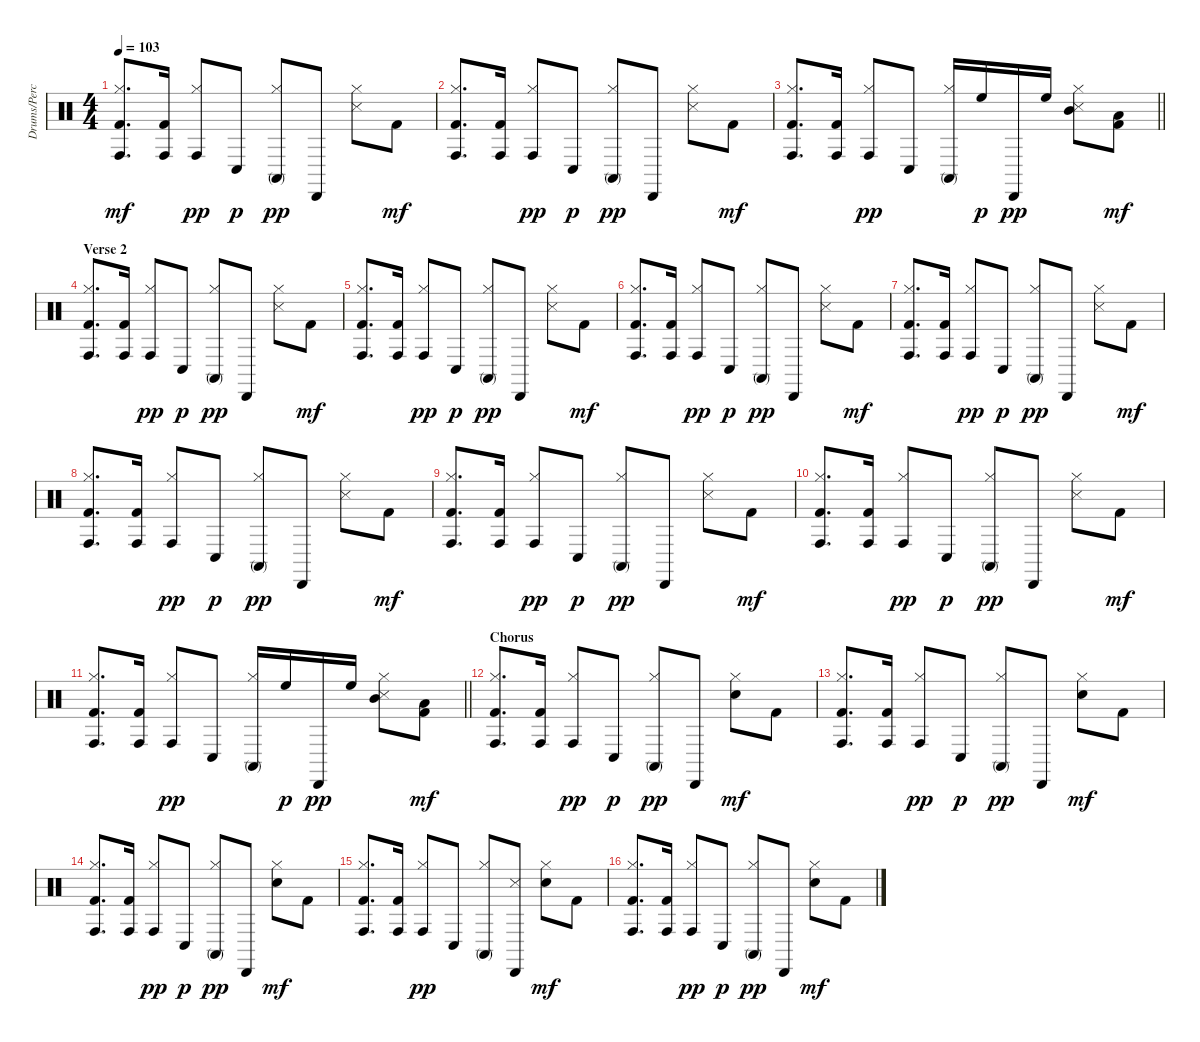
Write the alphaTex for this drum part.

\track ("Drums/Perc." "Drums/Perc") {instrument percussion}
\staff {score}
\articulation defaults
\ts (4 4)
\tempo 103
\clef neutral
\ks c
("Conga high (hit)" "Hi-Hat (closed)" "Kick (hit) 2").8{d dy mf} ("Conga high (hit)" "Kick (hit) 2").16 ("Conga high (hit)" "Hi-Hat (closed)").8{dy pp} "Conga low (hit)".8{dy p} ("Conga high (mute)" "Hi-Hat (closed)").8{dy pp} "Cabasa (hit)".8 ("Hi-Hat (closed)" "Snare (side stick) 3").8 "Kick (hit) 2".8{dy mf} |
("Conga high (hit)" "Hi-Hat (closed)" "Kick (hit) 2").8{d} ("Conga high (hit)" "Kick (hit) 2").16 ("Conga high (hit)" "Hi-Hat (closed)").8{dy pp} "Conga low (hit)".8{dy p} ("Conga high (mute)" "Hi-Hat (closed)").8{dy pp} "Cabasa (hit)".8 ("Hi-Hat (closed)" "Snare (side stick) 3").8 "Kick (hit) 2".8{dy mf} |
\barLineRight lightlight
("Conga high (hit)" "Hi-Hat (closed)" "Kick (hit) 2").8{d} ("Conga high (hit)" "Kick (hit) 2").16 ("Conga high (hit)" "Hi-Hat (closed)").8{dy pp} "Conga low (hit)".8 ("Conga high (mute)" "Hi-Hat (closed)").16 "High Floor Tom (hit)".16{dy p} "Cabasa (hit)".16{dy pp} "High Floor Tom (hit)".16 ("Mid Tom (hit)" "Hi-Hat (closed)" "Snare (side stick) 3").8 ("Low Floor Tom (hit)" "Kick (hit) 2").8{dy mf} |
\section ("" "Verse 2")
("Conga high (hit)" "Hi-Hat (closed)" "Kick (hit) 2").8{d} ("Conga high (hit)" "Kick (hit) 2").16 ("Conga high (hit)" "Hi-Hat (closed)").8{dy pp} "Conga low (hit)".8{dy p} ("Conga high (mute)" "Hi-Hat (closed)").8{dy pp} "Cabasa (hit)".8 ("Hi-Hat (closed)" "Snare (side stick) 3").8 "Kick (hit) 2".8{dy mf} |
("Conga high (hit)" "Hi-Hat (closed)" "Kick (hit) 2").8{d} ("Conga high (hit)" "Kick (hit) 2").16 ("Conga high (hit)" "Hi-Hat (closed)").8{dy pp} "Conga low (hit)".8{dy p} ("Conga high (mute)" "Hi-Hat (closed)").8{dy pp} "Cabasa (hit)".8 ("Hi-Hat (closed)" "Snare (side stick) 3").8 "Kick (hit) 2".8{dy mf} |
("Conga high (hit)" "Hi-Hat (closed)" "Kick (hit) 2").8{d} ("Conga high (hit)" "Kick (hit) 2").16 ("Conga high (hit)" "Hi-Hat (closed)").8{dy pp} "Conga low (hit)".8{dy p} ("Conga high (mute)" "Hi-Hat (closed)").8{dy pp} "Cabasa (hit)".8 ("Hi-Hat (closed)" "Snare (side stick) 3").8 "Kick (hit) 2".8{dy mf} |
("Conga high (hit)" "Hi-Hat (closed)" "Kick (hit) 2").8{d} ("Conga high (hit)" "Kick (hit) 2").16 ("Conga high (hit)" "Hi-Hat (closed)").8{dy pp} "Conga low (hit)".8{dy p} ("Conga high (mute)" "Hi-Hat (closed)").8{dy pp} "Cabasa (hit)".8 ("Hi-Hat (closed)" "Snare (side stick) 3").8 "Kick (hit) 2".8{dy mf} |
("Conga high (hit)" "Hi-Hat (closed)" "Kick (hit) 2").8{d} ("Conga high (hit)" "Kick (hit) 2").16 ("Conga high (hit)" "Hi-Hat (closed)").8{dy pp} "Conga low (hit)".8{dy p} ("Conga high (mute)" "Hi-Hat (closed)").8{dy pp} "Cabasa (hit)".8 ("Hi-Hat (closed)" "Snare (side stick) 3").8 "Kick (hit) 2".8{dy mf} |
("Conga high (hit)" "Hi-Hat (closed)" "Kick (hit) 2").8{d} ("Conga high (hit)" "Kick (hit) 2").16 ("Conga high (hit)" "Hi-Hat (closed)").8{dy pp} "Conga low (hit)".8{dy p} ("Conga high (mute)" "Hi-Hat (closed)").8{dy pp} "Cabasa (hit)".8 ("Hi-Hat (closed)" "Snare (side stick) 3").8 "Kick (hit) 2".8{dy mf} |
("Conga high (hit)" "Hi-Hat (closed)" "Kick (hit) 2").8{d} ("Conga high (hit)" "Kick (hit) 2").16 ("Conga high (hit)" "Hi-Hat (closed)").8{dy pp} "Conga low (hit)".8{dy p} ("Conga high (mute)" "Hi-Hat (closed)").8{dy pp} "Cabasa (hit)".8 ("Hi-Hat (closed)" "Snare (side stick) 3").8 "Kick (hit) 2".8{dy mf} |
\barLineRight lightlight
("Conga high (hit)" "Hi-Hat (closed)" "Kick (hit) 2").8{d} ("Conga high (hit)" "Kick (hit) 2").16 ("Conga high (hit)" "Hi-Hat (closed)").8{dy pp} "Conga low (hit)".8 ("Conga high (mute)" "Hi-Hat (closed)").16 "High Floor Tom (hit)".16{dy p} "Cabasa (hit)".16{dy pp} "High Floor Tom (hit)".16 ("Mid Tom (hit)" "Hi-Hat (closed)" "Snare (side stick) 3").8 ("Low Floor Tom (hit)" "Kick (hit) 2").8{dy mf} |
\section ("" "Chorus")
("Conga high (hit)" "Hi-Hat (closed)" "Kick (hit) 2").8{d} ("Conga high (hit)" "Kick (hit) 2").16 ("Conga high (hit)" "Hi-Hat (closed)").8{dy pp} "Conga low (hit)".8{dy p} ("Conga high (mute)" "Hi-Hat (closed)").8{dy pp} "Cabasa (hit)".8 ("Hi-Hat (closed)" "Snare (hit) 2").8{dy mf} "Kick (hit) 2".8 |
("Conga high (hit)" "Hi-Hat (closed)" "Kick (hit) 2").8{d} ("Conga high (hit)" "Kick (hit) 2").16 ("Conga high (hit)" "Hi-Hat (closed)").8{dy pp} "Conga low (hit)".8{dy p} ("Conga high (mute)" "Hi-Hat (closed)").8{dy pp} "Cabasa (hit)".8 ("Hi-Hat (closed)" "Snare (hit) 2").8{dy mf} "Kick (hit) 2".8 |
("Conga high (hit)" "Hi-Hat (closed)" "Kick (hit) 2").8{d} ("Conga high (hit)" "Kick (hit) 2").16 ("Conga high (hit)" "Hi-Hat (closed)").8{dy pp} "Conga low (hit)".8{dy p} ("Conga high (mute)" "Hi-Hat (closed)").8{dy pp} "Cabasa (hit)".8 ("Hi-Hat (closed)" "Snare (hit) 2").8{dy mf} "Kick (hit) 2".8 |
("Conga high (hit)" "Hi-Hat (closed)" "Kick (hit) 2").8{d} ("Conga high (hit)" "Kick (hit) 2").16 ("Conga high (hit)" "Hi-Hat (closed)").8{dy pp} "Conga low (hit)".8 ("Conga high (mute)" "Hi-Hat (closed)").8 ("Cabasa (hit)" "Snare (side stick) 3").8 ("Hi-Hat (closed)" "Snare (hit) 2").8{dy mf} "Kick (hit) 2".8 |
("Conga high (hit)" "Hi-Hat (closed)" "Kick (hit) 2").8{d} ("Conga high (hit)" "Kick (hit) 2").16 ("Conga high (hit)" "Hi-Hat (closed)").8{dy pp} "Conga low (hit)".8{dy p} ("Conga high (mute)" "Hi-Hat (closed)").8{dy pp} "Cabasa (hit)".8 ("Hi-Hat (closed)" "Snare (hit) 2").8{dy mf} "Kick (hit) 2".8
